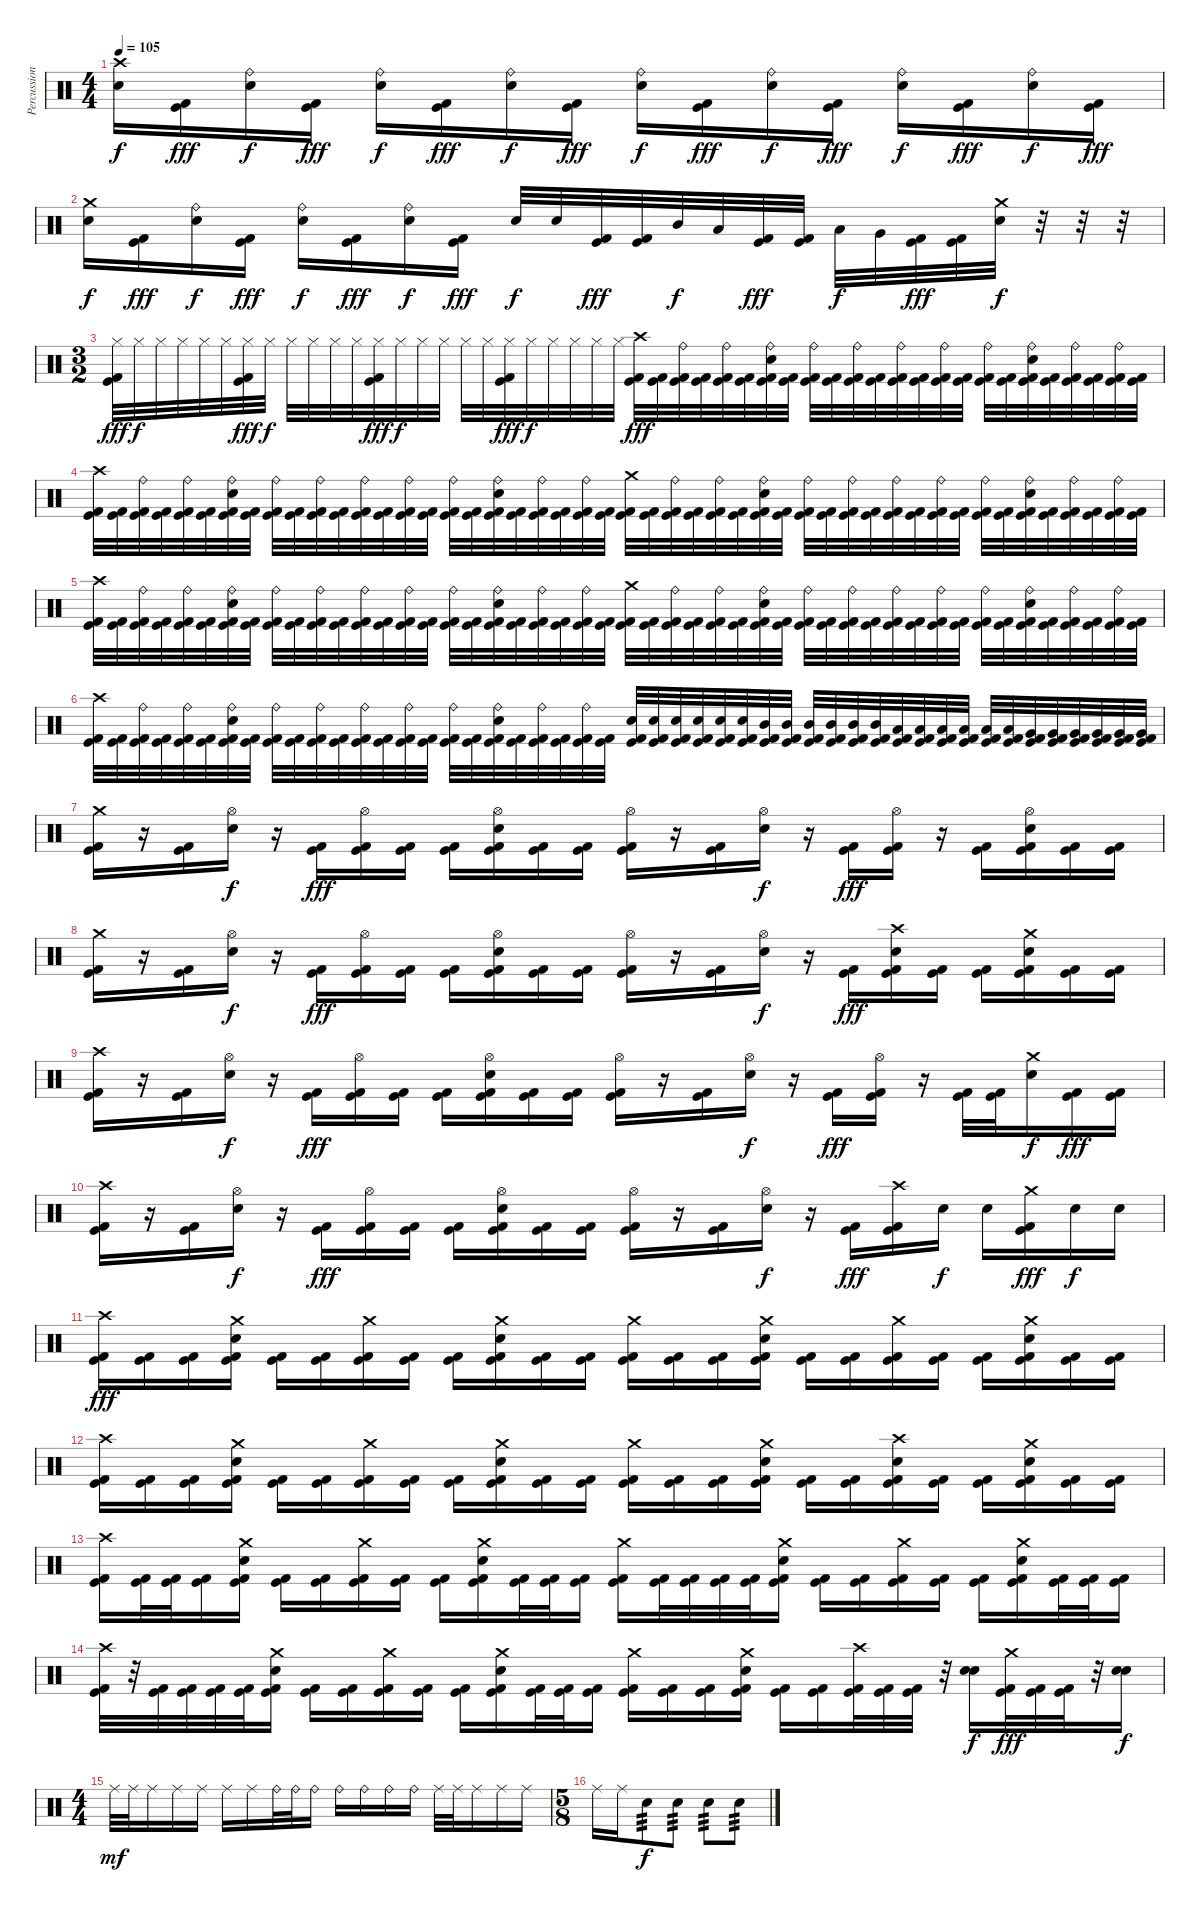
\track ("Percussion" "Percussion") {instrument percussion}
\staff {score}
\articulation defaults
\ts (4 4)
\tempo 105
\clef neutral
\ks c
("Crash high (hit)" "Electric Snare (hit)").16{dy f} ("Kick (hit)" "Kick (hit) 2").16{dy fff} ("Ride (bell)" "Electric Snare (hit)").16{dy f} ("Kick (hit)" "Kick (hit) 2").16{dy fff} ("Ride (bell)" "Electric Snare (hit)").16{dy f} ("Kick (hit)" "Kick (hit) 2").16{dy fff} ("Ride (bell)" "Electric Snare (hit)").16{dy f} ("Kick (hit)" "Kick (hit) 2").16{dy fff} ("Ride (bell)" "Electric Snare (hit)").16{dy f} ("Kick (hit)" "Kick (hit) 2").16{dy fff} ("Ride (bell)" "Electric Snare (hit)").16{dy f} ("Kick (hit)" "Kick (hit) 2").16{dy fff} ("Ride (bell)" "Electric Snare (hit)").16{dy f} ("Kick (hit)" "Kick (hit) 2").16{dy fff} ("Ride (bell)" "Electric Snare (hit)").16{dy f} ("Kick (hit)" "Kick (hit) 2").16{dy fff} |
("Crash medium (hit)" "Electric Snare (hit)").16{dy f} ("Kick (hit)" "Kick (hit) 2").16{dy fff} ("Ride (bell)" "Electric Snare (hit)").16{dy f} ("Kick (hit)" "Kick (hit) 2").16{dy fff} ("Ride (bell)" "Electric Snare (hit)").16{dy f} ("Kick (hit)" "Kick (hit) 2").16{dy fff} ("Ride (bell)" "Electric Snare (hit)").16{dy f} ("Kick (hit)" "Kick (hit) 2").16{dy fff} "Electric Snare (hit)".32{dy f} "Electric Snare (hit)".32 ("Kick (hit)" "Kick (hit) 2").32{dy fff} ("Kick (hit)" "Kick (hit) 2").32 "Mid Tom (hit)".32{dy f} "Low Tom (hit)".32 ("Kick (hit)" "Kick (hit) 2").32{dy fff} ("Kick (hit)" "Kick (hit) 2").32 "Low Tom (hit)".32{dy f} "Very Low Tom (hit)".32 ("Kick (hit)" "Kick (hit) 2").32{dy fff} ("Kick (hit)" "Kick (hit) 2").32 ("Crash medium (hit)" "Electric Snare (hit)").32{dy f} r.32 r.32 r.32 |
\ts (3 2)
("Hi-Hat (closed)" "Kick (hit)" "Kick (hit) 2").32{dy fff} "Hi-Hat (closed)".32{dy f} "Hi-Hat (closed)".32 "Hi-Hat (closed)".32 "Hi-Hat (closed)".32 "Hi-Hat (closed)".32 ("Hi-Hat (closed)" "Kick (hit)" "Kick (hit) 2").32{dy fff} "Hi-Hat (closed)".32{dy f} "Hi-Hat (closed)".32 "Hi-Hat (closed)".32 "Hi-Hat (closed)".32 "Hi-Hat (closed)".32 ("Hi-Hat (closed)" "Kick (hit)" "Kick (hit) 2").32{dy fff} "Hi-Hat (closed)".32{dy f} "Hi-Hat (closed)".32 "Hi-Hat (closed)".32 "Hi-Hat (closed)".32 "Hi-Hat (closed)".32 ("Hi-Hat (closed)" "Kick (hit)" "Kick (hit) 2").32{dy fff} "Hi-Hat (closed)".32{dy f} "Hi-Hat (closed)".32 "Hi-Hat (closed)".32 "Hi-Hat (closed)".32 "Hi-Hat (closed)".32 ("Crash high (hit)" "Kick (hit)" "Kick (hit) 2").32{dy fff} ("Kick (hit)" "Kick (hit) 2").32 ("Ride (bell)" "Kick (hit)" "Kick (hit) 2").32 ("Kick (hit)" "Kick (hit) 2").32 ("Ride (bell)" "Kick (hit)" "Kick (hit) 2").32 ("Kick (hit)" "Kick (hit) 2").32 ("Ride (bell)" "Electric Snare (hit)" "Kick (hit)" "Kick (hit) 2").32 ("Kick (hit)" "Kick (hit) 2").32 ("Ride (bell)" "Kick (hit)" "Kick (hit) 2").32 ("Kick (hit)" "Kick (hit) 2").32 ("Ride (bell)" "Kick (hit)" "Kick (hit) 2").32 ("Kick (hit)" "Kick (hit) 2").32 ("Ride (bell)" "Kick (hit)" "Kick (hit) 2").32 ("Kick (hit)" "Kick (hit) 2").32 ("Ride (bell)" "Kick (hit)" "Kick (hit) 2").32 ("Kick (hit)" "Kick (hit) 2").32 ("Ride (bell)" "Kick (hit)" "Kick (hit) 2").32 ("Kick (hit)" "Kick (hit) 2").32 ("Ride (bell)" "Electric Snare (hit)" "Kick (hit)" "Kick (hit) 2").32 ("Kick (hit)" "Kick (hit) 2").32 ("Ride (bell)" "Kick (hit)" "Kick (hit) 2").32 ("Kick (hit)" "Kick (hit) 2").32 ("Ride (bell)" "Kick (hit)" "Kick (hit) 2").32 ("Kick (hit)" "Kick (hit) 2").32 |
("Crash high (hit)" "Kick (hit)" "Kick (hit) 2").32 ("Kick (hit)" "Kick (hit) 2").32 ("Ride (bell)" "Kick (hit)" "Kick (hit) 2").32 ("Kick (hit)" "Kick (hit) 2").32 ("Ride (bell)" "Kick (hit)" "Kick (hit) 2").32 ("Kick (hit)" "Kick (hit) 2").32 ("Ride (bell)" "Electric Snare (hit)" "Kick (hit)" "Kick (hit) 2").32 ("Kick (hit)" "Kick (hit) 2").32 ("Ride (bell)" "Kick (hit)" "Kick (hit) 2").32 ("Kick (hit)" "Kick (hit) 2").32 ("Ride (bell)" "Kick (hit)" "Kick (hit) 2").32 ("Kick (hit)" "Kick (hit) 2").32 ("Ride (bell)" "Kick (hit)" "Kick (hit) 2").32 ("Kick (hit)" "Kick (hit) 2").32 ("Ride (bell)" "Kick (hit)" "Kick (hit) 2").32 ("Kick (hit)" "Kick (hit) 2").32 ("Ride (bell)" "Kick (hit)" "Kick (hit) 2").32 ("Kick (hit)" "Kick (hit) 2").32 ("Ride (bell)" "Electric Snare (hit)" "Kick (hit)" "Kick (hit) 2").32 ("Kick (hit)" "Kick (hit) 2").32 ("Ride (bell)" "Kick (hit)" "Kick (hit) 2").32 ("Kick (hit)" "Kick (hit) 2").32 ("Ride (bell)" "Kick (hit)" "Kick (hit) 2").32 ("Kick (hit)" "Kick (hit) 2").32 ("Crash medium (hit)" "Kick (hit)" "Kick (hit) 2").32 ("Kick (hit)" "Kick (hit) 2").32 ("Ride (bell)" "Kick (hit)" "Kick (hit) 2").32 ("Kick (hit)" "Kick (hit) 2").32 ("Ride (bell)" "Kick (hit)" "Kick (hit) 2").32 ("Kick (hit)" "Kick (hit) 2").32 ("Ride (bell)" "Electric Snare (hit)" "Kick (hit)" "Kick (hit) 2").32 ("Kick (hit)" "Kick (hit) 2").32 ("Ride (bell)" "Kick (hit)" "Kick (hit) 2").32 ("Kick (hit)" "Kick (hit) 2").32 ("Ride (bell)" "Kick (hit)" "Kick (hit) 2").32 ("Kick (hit)" "Kick (hit) 2").32 ("Ride (bell)" "Kick (hit)" "Kick (hit) 2").32 ("Kick (hit)" "Kick (hit) 2").32 ("Ride (bell)" "Kick (hit)" "Kick (hit) 2").32 ("Kick (hit)" "Kick (hit) 2").32 ("Ride (bell)" "Kick (hit)" "Kick (hit) 2").32 ("Kick (hit)" "Kick (hit) 2").32 ("Ride (bell)" "Electric Snare (hit)" "Kick (hit)" "Kick (hit) 2").32 ("Kick (hit)" "Kick (hit) 2").32 ("Ride (bell)" "Kick (hit)" "Kick (hit) 2").32 ("Kick (hit)" "Kick (hit) 2").32 ("Ride (bell)" "Kick (hit)" "Kick (hit) 2").32 ("Kick (hit)" "Kick (hit) 2").32 |
("Crash high (hit)" "Kick (hit)" "Kick (hit) 2").32 ("Kick (hit)" "Kick (hit) 2").32 ("Ride (bell)" "Kick (hit)" "Kick (hit) 2").32 ("Kick (hit)" "Kick (hit) 2").32 ("Ride (bell)" "Kick (hit)" "Kick (hit) 2").32 ("Kick (hit)" "Kick (hit) 2").32 ("Ride (bell)" "Electric Snare (hit)" "Kick (hit)" "Kick (hit) 2").32 ("Kick (hit)" "Kick (hit) 2").32 ("Ride (bell)" "Kick (hit)" "Kick (hit) 2").32 ("Kick (hit)" "Kick (hit) 2").32 ("Ride (bell)" "Kick (hit)" "Kick (hit) 2").32 ("Kick (hit)" "Kick (hit) 2").32 ("Ride (bell)" "Kick (hit)" "Kick (hit) 2").32 ("Kick (hit)" "Kick (hit) 2").32 ("Ride (bell)" "Kick (hit)" "Kick (hit) 2").32 ("Kick (hit)" "Kick (hit) 2").32 ("Ride (bell)" "Kick (hit)" "Kick (hit) 2").32 ("Kick (hit)" "Kick (hit) 2").32 ("Ride (bell)" "Electric Snare (hit)" "Kick (hit)" "Kick (hit) 2").32 ("Kick (hit)" "Kick (hit) 2").32 ("Ride (bell)" "Kick (hit)" "Kick (hit) 2").32 ("Kick (hit)" "Kick (hit) 2").32 ("Ride (bell)" "Kick (hit)" "Kick (hit) 2").32 ("Kick (hit)" "Kick (hit) 2").32 ("Crash medium (hit)" "Kick (hit)" "Kick (hit) 2").32 ("Kick (hit)" "Kick (hit) 2").32 ("Ride (bell)" "Kick (hit)" "Kick (hit) 2").32 ("Kick (hit)" "Kick (hit) 2").32 ("Ride (bell)" "Kick (hit)" "Kick (hit) 2").32 ("Kick (hit)" "Kick (hit) 2").32 ("Ride (bell)" "Electric Snare (hit)" "Kick (hit)" "Kick (hit) 2").32 ("Kick (hit)" "Kick (hit) 2").32 ("Ride (bell)" "Kick (hit)" "Kick (hit) 2").32 ("Kick (hit)" "Kick (hit) 2").32 ("Ride (bell)" "Kick (hit)" "Kick (hit) 2").32 ("Kick (hit)" "Kick (hit) 2").32 ("Ride (bell)" "Kick (hit)" "Kick (hit) 2").32 ("Kick (hit)" "Kick (hit) 2").32 ("Ride (bell)" "Kick (hit)" "Kick (hit) 2").32 ("Kick (hit)" "Kick (hit) 2").32 ("Ride (bell)" "Kick (hit)" "Kick (hit) 2").32 ("Kick (hit)" "Kick (hit) 2").32 ("Ride (bell)" "Electric Snare (hit)" "Kick (hit)" "Kick (hit) 2").32 ("Kick (hit)" "Kick (hit) 2").32 ("Ride (bell)" "Kick (hit)" "Kick (hit) 2").32 ("Kick (hit)" "Kick (hit) 2").32 ("Ride (bell)" "Kick (hit)" "Kick (hit) 2").32 ("Kick (hit)" "Kick (hit) 2").32 |
("Crash high (hit)" "Kick (hit)" "Kick (hit) 2").32 ("Kick (hit)" "Kick (hit) 2").32 ("Ride (bell)" "Kick (hit)" "Kick (hit) 2").32 ("Kick (hit)" "Kick (hit) 2").32 ("Ride (bell)" "Kick (hit)" "Kick (hit) 2").32 ("Kick (hit)" "Kick (hit) 2").32 ("Ride (bell)" "Electric Snare (hit)" "Kick (hit)" "Kick (hit) 2").32 ("Kick (hit)" "Kick (hit) 2").32 ("Ride (bell)" "Kick (hit)" "Kick (hit) 2").32 ("Kick (hit)" "Kick (hit) 2").32 ("Ride (bell)" "Kick (hit)" "Kick (hit) 2").32 ("Kick (hit)" "Kick (hit) 2").32 ("Ride (bell)" "Kick (hit)" "Kick (hit) 2").32 ("Kick (hit)" "Kick (hit) 2").32 ("Ride (bell)" "Kick (hit)" "Kick (hit) 2").32 ("Kick (hit)" "Kick (hit) 2").32 ("Ride (bell)" "Kick (hit)" "Kick (hit) 2").32 ("Kick (hit)" "Kick (hit) 2").32 ("Ride (bell)" "Electric Snare (hit)" "Kick (hit)" "Kick (hit) 2").32 ("Kick (hit)" "Kick (hit) 2").32 ("Ride (bell)" "Kick (hit)" "Kick (hit) 2").32 ("Kick (hit)" "Kick (hit) 2").32 ("Ride (bell)" "Kick (hit)" "Kick (hit) 2").32 ("Kick (hit)" "Kick (hit) 2").32 ("Electric Snare (hit)" "Kick (hit)" "Kick (hit) 2").32 ("Electric Snare (hit)" "Kick (hit)" "Kick (hit) 2").32 ("Electric Snare (hit)" "Kick (hit)" "Kick (hit) 2").32 ("Electric Snare (hit)" "Kick (hit)" "Kick (hit) 2").32 ("Electric Snare (hit)" "Kick (hit)" "Kick (hit) 2").32 ("Electric Snare (hit)" "Kick (hit)" "Kick (hit) 2").32 ("Mid Tom (hit)" "Kick (hit)" "Kick (hit) 2").32 ("Mid Tom (hit)" "Kick (hit)" "Kick (hit) 2").32 ("Mid Tom (hit)" "Kick (hit)" "Kick (hit) 2").32 ("Mid Tom (hit)" "Kick (hit)" "Kick (hit) 2").32 ("Mid Tom (hit)" "Kick (hit)" "Kick (hit) 2").32 ("Mid Tom (hit)" "Kick (hit)" "Kick (hit) 2").32 ("Low Tom (hit)" "Kick (hit)" "Kick (hit) 2").32 ("Low Tom (hit)" "Kick (hit)" "Kick (hit) 2").32 ("Low Tom (hit)" "Kick (hit)" "Kick (hit) 2").32 ("Low Tom (hit)" "Kick (hit)" "Kick (hit) 2").32 ("Low Tom (hit)" "Kick (hit)" "Kick (hit) 2").32 ("Low Tom (hit)" "Kick (hit)" "Kick (hit) 2").32 ("Very Low Tom (hit)" "Kick (hit)" "Kick (hit) 2").32 ("Very Low Tom (hit)" "Kick (hit)" "Kick (hit) 2").32 ("Very Low Tom (hit)" "Kick (hit)" "Kick (hit) 2").32 ("Very Low Tom (hit)" "Kick (hit)" "Kick (hit) 2").32 ("Very Low Tom (hit)" "Kick (hit)" "Kick (hit) 2").32 ("Very Low Tom (hit)" "Kick (hit)" "Kick (hit) 2").32 |
("Crash medium (hit)" "Kick (hit)" "Kick (hit) 2").16 r.16 ("Kick (hit)" "Kick (hit) 2").16 ("Hi-Hat (open)" "Electric Snare (hit)").16{dy f} r.16 ("Kick (hit)" "Kick (hit) 2").16{dy fff} ("Hi-Hat (open)" "Kick (hit)" "Kick (hit) 2").16 ("Kick (hit)" "Kick (hit) 2").16 ("Kick (hit)" "Kick (hit) 2").16 ("Hi-Hat (open)" "Electric Snare (hit)" "Kick (hit)" "Kick (hit) 2").16 ("Kick (hit)" "Kick (hit) 2").16 ("Kick (hit)" "Kick (hit) 2").16 ("Hi-Hat (open)" "Kick (hit)" "Kick (hit) 2").16 r.16 ("Kick (hit)" "Kick (hit) 2").16 ("Hi-Hat (open)" "Electric Snare (hit)").16{dy f} r.16 ("Kick (hit)" "Kick (hit) 2").16{dy fff} ("Hi-Hat (open)" "Kick (hit)" "Kick (hit) 2").16 r.16 ("Kick (hit)" "Kick (hit) 2").16 ("Hi-Hat (open)" "Electric Snare (hit)" "Kick (hit)" "Kick (hit) 2").16 ("Kick (hit)" "Kick (hit) 2").16 ("Kick (hit)" "Kick (hit) 2").16 |
("Crash medium (hit)" "Kick (hit)" "Kick (hit) 2").16 r.16 ("Kick (hit)" "Kick (hit) 2").16 ("Hi-Hat (open)" "Electric Snare (hit)").16{dy f} r.16 ("Kick (hit)" "Kick (hit) 2").16{dy fff} ("Hi-Hat (open)" "Kick (hit)" "Kick (hit) 2").16 ("Kick (hit)" "Kick (hit) 2").16 ("Kick (hit)" "Kick (hit) 2").16 ("Hi-Hat (open)" "Electric Snare (hit)" "Kick (hit)" "Kick (hit) 2").16 ("Kick (hit)" "Kick (hit) 2").16 ("Kick (hit)" "Kick (hit) 2").16 ("Hi-Hat (open)" "Kick (hit)" "Kick (hit) 2").16 r.16 ("Kick (hit)" "Kick (hit) 2").16 ("Hi-Hat (open)" "Electric Snare (hit)").16{dy f} r.16 ("Kick (hit)" "Kick (hit) 2").16{dy fff} ("Crash high (hit)" "Electric Snare (hit)" "Kick (hit)" "Kick (hit) 2").16 ("Kick (hit)" "Kick (hit) 2").16 ("Kick (hit)" "Kick (hit) 2").16 ("Crash medium (hit)" "Electric Snare (hit)" "Kick (hit)" "Kick (hit) 2").16 ("Kick (hit)" "Kick (hit) 2").16 ("Kick (hit)" "Kick (hit) 2").16 |
("Crash high (hit)" "Kick (hit)" "Kick (hit) 2").16 r.16 ("Kick (hit)" "Kick (hit) 2").16 ("Hi-Hat (open)" "Electric Snare (hit)").16{dy f} r.16 ("Kick (hit)" "Kick (hit) 2").16{dy fff} ("Hi-Hat (open)" "Kick (hit)" "Kick (hit) 2").16 ("Kick (hit)" "Kick (hit) 2").16 ("Kick (hit)" "Kick (hit) 2").16 ("Hi-Hat (open)" "Electric Snare (hit)" "Kick (hit)" "Kick (hit) 2").16 ("Kick (hit)" "Kick (hit) 2").16 ("Kick (hit)" "Kick (hit) 2").16 ("Hi-Hat (open)" "Kick (hit)" "Kick (hit) 2").16 r.16 ("Kick (hit)" "Kick (hit) 2").16 ("Hi-Hat (open)" "Electric Snare (hit)").16{dy f} r.16 ("Kick (hit)" "Kick (hit) 2").16{dy fff} ("Hi-Hat (open)" "Kick (hit)" "Kick (hit) 2").16 r.16 ("Kick (hit)" "Kick (hit) 2").32 ("Kick (hit)" "Kick (hit) 2").32 ("Crash medium (hit)" "Electric Snare (hit)").16{dy f} ("Kick (hit)" "Kick (hit) 2").16{dy fff} ("Kick (hit)" "Kick (hit) 2").16 |
("Crash high (hit)" "Kick (hit)" "Kick (hit) 2").16 r.16 ("Kick (hit)" "Kick (hit) 2").16 ("Hi-Hat (open)" "Electric Snare (hit)").16{dy f} r.16 ("Kick (hit)" "Kick (hit) 2").16{dy fff} ("Hi-Hat (open)" "Kick (hit)" "Kick (hit) 2").16 ("Kick (hit)" "Kick (hit) 2").16 ("Kick (hit)" "Kick (hit) 2").16 ("Hi-Hat (open)" "Electric Snare (hit)" "Kick (hit)" "Kick (hit) 2").16 ("Kick (hit)" "Kick (hit) 2").16 ("Kick (hit)" "Kick (hit) 2").16 ("Hi-Hat (open)" "Kick (hit)" "Kick (hit) 2").16 r.16 ("Kick (hit)" "Kick (hit) 2").16 ("Hi-Hat (open)" "Electric Snare (hit)").16{dy f} r.16 ("Kick (hit)" "Kick (hit) 2").16{dy fff} ("Crash high (hit)" "Kick (hit)" "Kick (hit) 2").16 "Electric Snare (hit)".16{dy f} "Electric Snare (hit)".16 ("Crash medium (hit)" "Kick (hit)" "Kick (hit) 2").16{dy fff} "Electric Snare (hit)".16{dy f} "Electric Snare (hit)".16 |
("Crash high (hit)" "Kick (hit)" "Kick (hit) 2").16{dy fff} ("Kick (hit)" "Kick (hit) 2").16 ("Kick (hit)" "Kick (hit) 2").16 ("Crash medium (hit)" "Electric Snare (hit)" "Kick (hit)" "Kick (hit) 2").16 ("Kick (hit)" "Kick (hit) 2").16 ("Kick (hit)" "Kick (hit) 2").16 ("Crash medium (hit)" "Kick (hit)" "Kick (hit) 2").16 ("Kick (hit)" "Kick (hit) 2").16 ("Kick (hit)" "Kick (hit) 2").16 ("Crash medium (hit)" "Electric Snare (hit)" "Kick (hit)" "Kick (hit) 2").16 ("Kick (hit)" "Kick (hit) 2").16 ("Kick (hit)" "Kick (hit) 2").16 ("Crash medium (hit)" "Kick (hit)" "Kick (hit) 2").16 ("Kick (hit)" "Kick (hit) 2").16 ("Kick (hit)" "Kick (hit) 2").16 ("Crash medium (hit)" "Electric Snare (hit)" "Kick (hit)" "Kick (hit) 2").16 ("Kick (hit)" "Kick (hit) 2").16 ("Kick (hit)" "Kick (hit) 2").16 ("Crash medium (hit)" "Kick (hit)" "Kick (hit) 2").16 ("Kick (hit)" "Kick (hit) 2").16 ("Kick (hit)" "Kick (hit) 2").16 ("Crash medium (hit)" "Electric Snare (hit)" "Kick (hit)" "Kick (hit) 2").16 ("Kick (hit)" "Kick (hit) 2").16 ("Kick (hit)" "Kick (hit) 2").16 |
("Crash high (hit)" "Kick (hit)" "Kick (hit) 2").16 ("Kick (hit)" "Kick (hit) 2").16 ("Kick (hit)" "Kick (hit) 2").16 ("Crash medium (hit)" "Electric Snare (hit)" "Kick (hit)" "Kick (hit) 2").16 ("Kick (hit)" "Kick (hit) 2").16 ("Kick (hit)" "Kick (hit) 2").16 ("Crash medium (hit)" "Kick (hit)" "Kick (hit) 2").16 ("Kick (hit)" "Kick (hit) 2").16 ("Kick (hit)" "Kick (hit) 2").16 ("Crash medium (hit)" "Electric Snare (hit)" "Kick (hit)" "Kick (hit) 2").16 ("Kick (hit)" "Kick (hit) 2").16 ("Kick (hit)" "Kick (hit) 2").16 ("Crash medium (hit)" "Kick (hit)" "Kick (hit) 2").16 ("Kick (hit)" "Kick (hit) 2").16 ("Kick (hit)" "Kick (hit) 2").16 ("Crash medium (hit)" "Electric Snare (hit)" "Kick (hit)" "Kick (hit) 2").16 ("Kick (hit)" "Kick (hit) 2").16 ("Kick (hit)" "Kick (hit) 2").16 ("Crash high (hit)" "Electric Snare (hit)" "Kick (hit)" "Kick (hit) 2").16 ("Kick (hit)" "Kick (hit) 2").16 ("Kick (hit)" "Kick (hit) 2").16 ("Crash medium (hit)" "Electric Snare (hit)" "Kick (hit)" "Kick (hit) 2").16 ("Kick (hit)" "Kick (hit) 2").16 ("Kick (hit)" "Kick (hit) 2").16 |
("Crash high (hit)" "Kick (hit)" "Kick (hit) 2").16 ("Kick (hit)" "Kick (hit) 2").32 ("Kick (hit)" "Kick (hit) 2").32 ("Kick (hit)" "Kick (hit) 2").16 ("Crash medium (hit)" "Electric Snare (hit)" "Kick (hit)" "Kick (hit) 2").16 ("Kick (hit)" "Kick (hit) 2").16 ("Kick (hit)" "Kick (hit) 2").16 ("Crash medium (hit)" "Kick (hit)" "Kick (hit) 2").16 ("Kick (hit)" "Kick (hit) 2").16 ("Kick (hit)" "Kick (hit) 2").16 ("Crash medium (hit)" "Electric Snare (hit)" "Kick (hit)" "Kick (hit) 2").16 ("Kick (hit)" "Kick (hit) 2").32 ("Kick (hit)" "Kick (hit) 2").32 ("Kick (hit)" "Kick (hit) 2").16 ("Crash medium (hit)" "Kick (hit)" "Kick (hit) 2").16 ("Kick (hit)" "Kick (hit) 2").32 ("Kick (hit)" "Kick (hit) 2").32 ("Kick (hit)" "Kick (hit) 2").32 ("Kick (hit)" "Kick (hit) 2").32 ("Crash medium (hit)" "Electric Snare (hit)" "Kick (hit)" "Kick (hit) 2").16 ("Kick (hit)" "Kick (hit) 2").16 ("Kick (hit)" "Kick (hit) 2").16 ("Crash medium (hit)" "Kick (hit)" "Kick (hit) 2").16 ("Kick (hit)" "Kick (hit) 2").16 ("Kick (hit)" "Kick (hit) 2").16 ("Crash medium (hit)" "Electric Snare (hit)" "Kick (hit)" "Kick (hit) 2").16 ("Kick (hit)" "Kick (hit) 2").32 ("Kick (hit)" "Kick (hit) 2").32 ("Kick (hit)" "Kick (hit) 2").16 |
("Crash high (hit)" "Kick (hit)" "Kick (hit) 2").32 r.32 ("Kick (hit)" "Kick (hit) 2").32 ("Kick (hit)" "Kick (hit) 2").32 ("Kick (hit)" "Kick (hit) 2").32 ("Kick (hit)" "Kick (hit) 2").32 ("Crash medium (hit)" "Electric Snare (hit)" "Kick (hit)" "Kick (hit) 2").16 ("Kick (hit)" "Kick (hit) 2").16 ("Kick (hit)" "Kick (hit) 2").16 ("Crash medium (hit)" "Kick (hit)" "Kick (hit) 2").16 ("Kick (hit)" "Kick (hit) 2").16 ("Kick (hit)" "Kick (hit) 2").16 ("Crash medium (hit)" "Electric Snare (hit)" "Kick (hit)" "Kick (hit) 2").16 ("Kick (hit)" "Kick (hit) 2").32 ("Kick (hit)" "Kick (hit) 2").32 ("Kick (hit)" "Kick (hit) 2").16 ("Crash medium (hit)" "Kick (hit)" "Kick (hit) 2").16 ("Kick (hit)" "Kick (hit) 2").16 ("Kick (hit)" "Kick (hit) 2").16 ("Crash medium (hit)" "Electric Snare (hit)" "Kick (hit)" "Kick (hit) 2").16 ("Kick (hit)" "Kick (hit) 2").16 ("Kick (hit)" "Kick (hit) 2").16 ("Crash high (hit)" "Kick (hit)" "Kick (hit) 2").32 ("Kick (hit)" "Kick (hit) 2").32 ("Kick (hit)" "Kick (hit) 2").32 r.32 ("Electric Snare (hit)" "Electric Snare (hit)").16{bu 60 dy f} ("Crash medium (hit)" "Kick (hit)" "Kick (hit) 2").32{dy fff} ("Kick (hit)" "Kick (hit) 2").32 ("Kick (hit)" "Kick (hit) 2").32 r.32 ("Electric Snare (hit)" "Electric Snare (hit)").16{bu 60 dy f} |
\ts (4 4)
"Ride (middle)".32{dy mf} "Ride (middle)".32 "Ride (middle)".16 "Ride (middle)".16 "Ride (middle)".16 "Ride (middle)".16 "Ride (middle)".16 "Ride (bell)".32 "Ride (bell)".32 "Ride (bell)".16 "Ride (bell)".16 "Ride (bell)".16 "Ride (bell)".16 "Ride (bell)".16 "Ride (middle)".32 "Ride (middle)".32 "Ride (middle)".16 "Ride (middle)".16 "Ride (middle)".16 |
\ts (5 8)
"Ride (middle)".16 "Ride (middle)".16 "Electric Snare (hit)".8{tp 3 dy f} "Electric Snare (hit)".8{tp 3} "Electric Snare (hit)".8{tp 3} "Electric Snare (hit)".8{tp 3}
